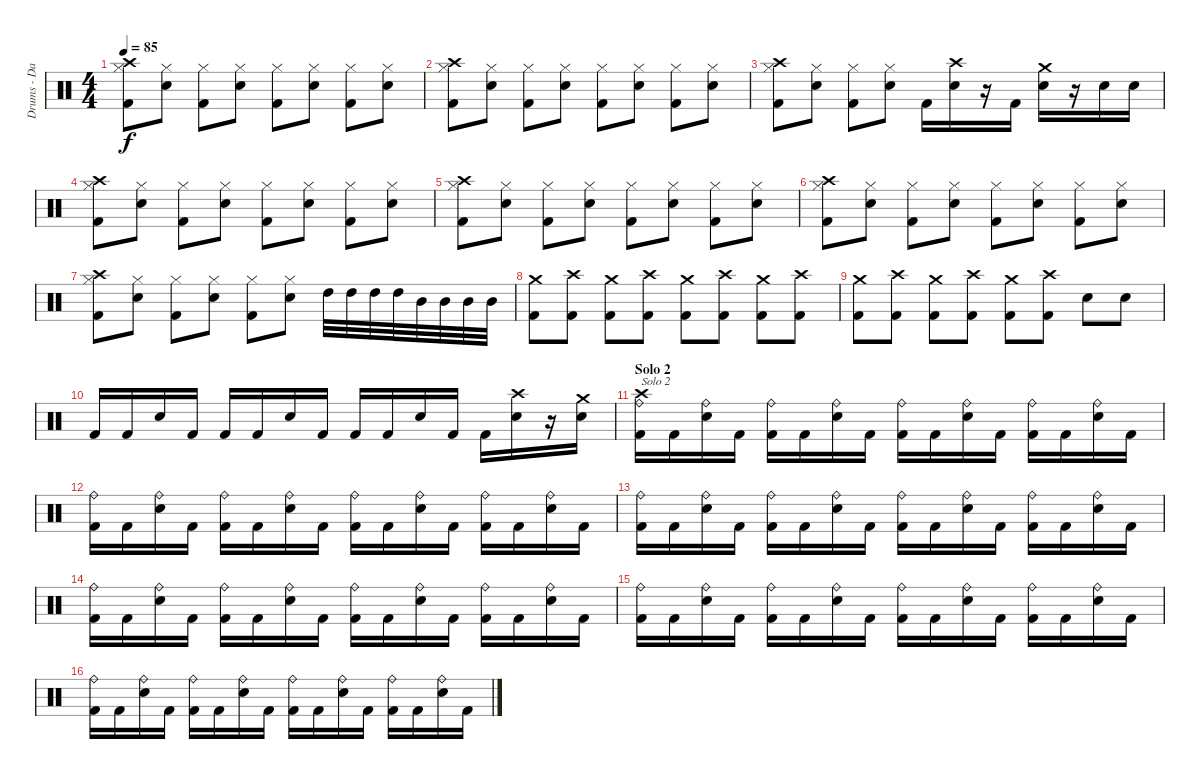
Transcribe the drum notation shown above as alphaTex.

\track ("Drums - Daniel Zimmermann" "Drums - Da") {instrument percussion}
\staff {score}
\articulation defaults
\ts (4 4)
\tempo 85
\clef neutral
\ks c
("Hi-Hat (closed)" "Kick (hit) 2" "Crash high (hit)").8{dy f} ("Hi-Hat (closed)" "Snare (hit) 2").8 ("Hi-Hat (closed)" "Kick (hit) 2").8 ("Hi-Hat (closed)" "Snare (hit) 2").8 ("Hi-Hat (closed)" "Kick (hit) 2").8 ("Hi-Hat (closed)" "Snare (hit) 2").8 ("Hi-Hat (closed)" "Kick (hit) 2").8 ("Hi-Hat (closed)" "Snare (hit) 2").8 |
("Hi-Hat (closed)" "Kick (hit) 2" "Crash high (hit)").8 ("Hi-Hat (closed)" "Snare (hit) 2").8 ("Hi-Hat (closed)" "Kick (hit) 2").8 ("Hi-Hat (closed)" "Snare (hit) 2").8 ("Hi-Hat (closed)" "Kick (hit) 2").8 ("Hi-Hat (closed)" "Snare (hit) 2").8 ("Hi-Hat (closed)" "Kick (hit) 2").8 ("Hi-Hat (closed)" "Snare (hit) 2").8 |
("Hi-Hat (closed)" "Kick (hit) 2" "Crash high (hit)").8 ("Hi-Hat (closed)" "Snare (hit) 2").8 ("Hi-Hat (closed)" "Kick (hit) 2").8 ("Hi-Hat (closed)" "Snare (hit) 2").8 "Kick (hit) 2".16 ("Snare (hit) 2" "Crash high (hit)").16 r.16 "Kick (hit) 2".16 ("Snare (hit) 2" "Crash medium (hit)").16 r.16 "Snare (hit) 2".16 "Snare (hit) 2".16 |
("Hi-Hat (closed)" "Kick (hit) 2" "Crash high (hit)").8 ("Hi-Hat (closed)" "Snare (hit) 2").8 ("Hi-Hat (closed)" "Kick (hit) 2").8 ("Hi-Hat (closed)" "Snare (hit) 2").8 ("Hi-Hat (closed)" "Kick (hit) 2").8 ("Hi-Hat (closed)" "Snare (hit) 2").8 ("Hi-Hat (closed)" "Kick (hit) 2").8 ("Hi-Hat (closed)" "Snare (hit) 2").8 |
("Hi-Hat (closed)" "Kick (hit) 2" "Crash high (hit)").8 ("Hi-Hat (closed)" "Snare (hit) 2").8 ("Hi-Hat (closed)" "Kick (hit) 2").8 ("Hi-Hat (closed)" "Snare (hit) 2").8 ("Hi-Hat (closed)" "Kick (hit) 2").8 ("Hi-Hat (closed)" "Snare (hit) 2").8 ("Hi-Hat (closed)" "Kick (hit) 2").8 ("Hi-Hat (closed)" "Snare (hit) 2").8 |
("Hi-Hat (closed)" "Kick (hit) 2" "Crash high (hit)").8 ("Hi-Hat (closed)" "Snare (hit) 2").8 ("Hi-Hat (closed)" "Kick (hit) 2").8 ("Hi-Hat (closed)" "Snare (hit) 2").8 ("Hi-Hat (closed)" "Kick (hit) 2").8 ("Hi-Hat (closed)" "Snare (hit) 2").8 ("Hi-Hat (closed)" "Kick (hit) 2").8 ("Hi-Hat (closed)" "Snare (hit) 2").8 |
("Hi-Hat (closed)" "Kick (hit) 2" "Crash high (hit)").8 ("Hi-Hat (closed)" "Snare (hit) 2").8 ("Hi-Hat (closed)" "Kick (hit) 2").8 ("Hi-Hat (closed)" "Snare (hit) 2").8 ("Hi-Hat (closed)" "Kick (hit) 2").8 ("Hi-Hat (closed)" "Snare (hit) 2").8 "High Tom (hit)".32 "High Tom (hit)".32 "High Tom (hit)".32 "High Tom (hit)".32 "Mid Tom (hit)".32 "Mid Tom (hit)".32 "Mid Tom (hit)".32 "Mid Tom (hit)".32 |
("Kick (hit) 2" "Crash medium (hit)").8 ("Kick (hit) 2" "Crash high (hit)").8 ("Kick (hit) 2" "Crash medium (hit)").8 ("Kick (hit) 2" "Crash high (hit)").8 ("Kick (hit) 2" "Crash medium (hit)").8 ("Kick (hit) 2" "Crash high (hit)").8 ("Kick (hit) 2" "Crash medium (hit)").8 ("Kick (hit) 2" "Crash high (hit)").8 |
("Kick (hit) 2" "Crash medium (hit)").8 ("Kick (hit) 2" "Crash high (hit)").8 ("Kick (hit) 2" "Crash medium (hit)").8 ("Kick (hit) 2" "Crash high (hit)").8 ("Kick (hit) 2" "Crash medium (hit)").8 ("Kick (hit) 2" "Crash high (hit)").8 "Snare (hit) 2".8 "Snare (hit) 2".8 |
"Kick (hit) 2".16 "Kick (hit) 2".16 "Snare (hit) 2".16 "Kick (hit) 2".16 "Kick (hit) 2".16 "Kick (hit) 2".16 "Snare (hit) 2".16 "Kick (hit) 2".16 "Kick (hit) 2".16 "Kick (hit) 2".16 "Snare (hit) 2".16 "Kick (hit) 2".16 "Kick (hit) 2".16 ("Snare (hit) 2" "Crash high (hit)").16 r.16 ("Snare (hit) 2" "Crash medium (hit)").16 |
\section ("" "Solo 2")
("Ride (bell)" "Kick (hit) 2" "Crash high (hit)").16{txt "Solo 2"} "Kick (hit) 2".16 ("Ride (bell)" "Snare (hit) 2").16 "Kick (hit) 2".16 ("Ride (bell)" "Kick (hit) 2").16 "Kick (hit) 2".16 ("Ride (bell)" "Snare (hit) 2").16 "Kick (hit) 2".16 ("Ride (bell)" "Kick (hit) 2").16 "Kick (hit) 2".16 ("Ride (bell)" "Snare (hit) 2").16 "Kick (hit) 2".16 ("Ride (bell)" "Kick (hit) 2").16 "Kick (hit) 2".16 ("Ride (bell)" "Snare (hit) 2").16 "Kick (hit) 2".16 |
("Ride (bell)" "Kick (hit) 2").16 "Kick (hit) 2".16 ("Ride (bell)" "Snare (hit) 2").16 "Kick (hit) 2".16 ("Ride (bell)" "Kick (hit) 2").16 "Kick (hit) 2".16 ("Ride (bell)" "Snare (hit) 2").16 "Kick (hit) 2".16 ("Ride (bell)" "Kick (hit) 2").16 "Kick (hit) 2".16 ("Ride (bell)" "Snare (hit) 2").16 "Kick (hit) 2".16 ("Ride (bell)" "Kick (hit) 2").16 "Kick (hit) 2".16 ("Ride (bell)" "Snare (hit) 2").16 "Kick (hit) 2".16 |
("Ride (bell)" "Kick (hit) 2").16 "Kick (hit) 2".16 ("Ride (bell)" "Snare (hit) 2").16 "Kick (hit) 2".16 ("Ride (bell)" "Kick (hit) 2").16 "Kick (hit) 2".16 ("Ride (bell)" "Snare (hit) 2").16 "Kick (hit) 2".16 ("Ride (bell)" "Kick (hit) 2").16 "Kick (hit) 2".16 ("Ride (bell)" "Snare (hit) 2").16 "Kick (hit) 2".16 ("Ride (bell)" "Kick (hit) 2").16 "Kick (hit) 2".16 ("Ride (bell)" "Snare (hit) 2").16 "Kick (hit) 2".16 |
("Ride (bell)" "Kick (hit) 2").16 "Kick (hit) 2".16 ("Ride (bell)" "Snare (hit) 2").16 "Kick (hit) 2".16 ("Ride (bell)" "Kick (hit) 2").16 "Kick (hit) 2".16 ("Ride (bell)" "Snare (hit) 2").16 "Kick (hit) 2".16 ("Ride (bell)" "Kick (hit) 2").16 "Kick (hit) 2".16 ("Ride (bell)" "Snare (hit) 2").16 "Kick (hit) 2".16 ("Ride (bell)" "Kick (hit) 2").16 "Kick (hit) 2".16 ("Ride (bell)" "Snare (hit) 2").16 "Kick (hit) 2".16 |
("Ride (bell)" "Kick (hit) 2").16 "Kick (hit) 2".16 ("Ride (bell)" "Snare (hit) 2").16 "Kick (hit) 2".16 ("Ride (bell)" "Kick (hit) 2").16 "Kick (hit) 2".16 ("Ride (bell)" "Snare (hit) 2").16 "Kick (hit) 2".16 ("Ride (bell)" "Kick (hit) 2").16 "Kick (hit) 2".16 ("Ride (bell)" "Snare (hit) 2").16 "Kick (hit) 2".16 ("Ride (bell)" "Kick (hit) 2").16 "Kick (hit) 2".16 ("Ride (bell)" "Snare (hit) 2").16 "Kick (hit) 2".16 |
("Ride (bell)" "Kick (hit) 2").16 "Kick (hit) 2".16 ("Ride (bell)" "Snare (hit) 2").16 "Kick (hit) 2".16 ("Ride (bell)" "Kick (hit) 2").16 "Kick (hit) 2".16 ("Ride (bell)" "Snare (hit) 2").16 "Kick (hit) 2".16 ("Ride (bell)" "Kick (hit) 2").16 "Kick (hit) 2".16 ("Ride (bell)" "Snare (hit) 2").16 "Kick (hit) 2".16 ("Ride (bell)" "Kick (hit) 2").16 "Kick (hit) 2".16 ("Ride (bell)" "Snare (hit) 2").16 "Kick (hit) 2".16
